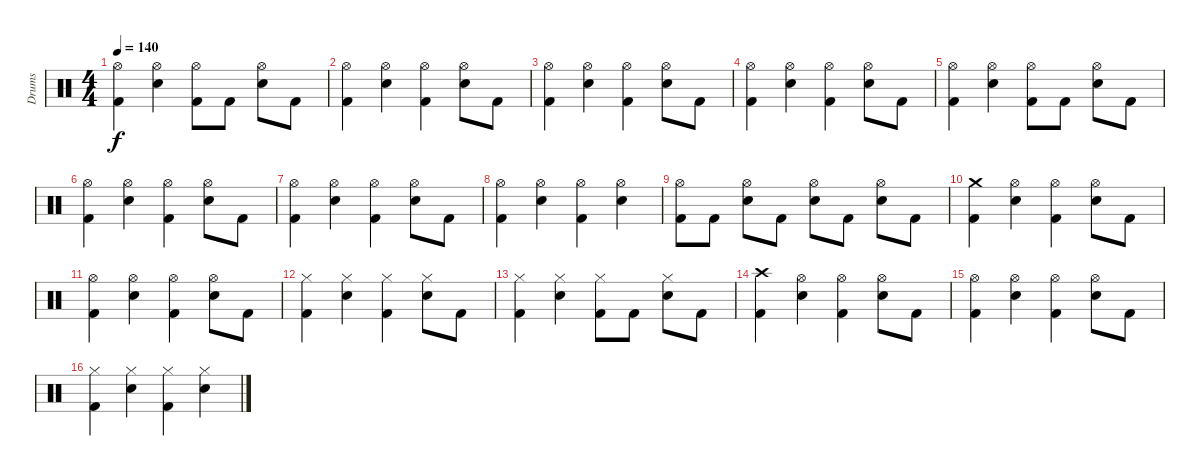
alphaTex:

\track ("Drums" "Drums") {instrument percussion}
\staff {score}
\articulation defaults
\ts (4 4)
\tempo 140
\clef neutral
\ks c
("Hi-Hat (open)" "Kick (hit) 2").4{dy f} ("Hi-Hat (open)" "Electric Snare (hit)").4 ("Hi-Hat (open)" "Kick (hit) 2").8 "Kick (hit) 2".8 ("Hi-Hat (open)" "Electric Snare (hit)").8 "Kick (hit) 2".8 |
("Hi-Hat (open)" "Kick (hit) 2").4 ("Hi-Hat (open)" "Electric Snare (hit)").4 ("Hi-Hat (open)" "Kick (hit) 2").4 ("Hi-Hat (open)" "Electric Snare (hit)").8 "Kick (hit) 2".8 |
("Hi-Hat (open)" "Kick (hit) 2").4 ("Hi-Hat (open)" "Electric Snare (hit)").4 ("Hi-Hat (open)" "Kick (hit) 2").4 ("Hi-Hat (open)" "Electric Snare (hit)").8 "Kick (hit) 2".8 |
("Hi-Hat (open)" "Kick (hit) 2").4 ("Hi-Hat (open)" "Electric Snare (hit)").4 ("Hi-Hat (open)" "Kick (hit) 2").4 ("Hi-Hat (open)" "Electric Snare (hit)").8 "Kick (hit) 2".8 |
("Hi-Hat (open)" "Kick (hit) 2").4 ("Hi-Hat (open)" "Electric Snare (hit)").4 ("Hi-Hat (open)" "Kick (hit) 2").8 "Kick (hit) 2".8 ("Hi-Hat (open)" "Electric Snare (hit)").8 "Kick (hit) 2".8 |
("Hi-Hat (open)" "Kick (hit) 2").4 ("Hi-Hat (open)" "Electric Snare (hit)").4 ("Hi-Hat (open)" "Kick (hit) 2").4 ("Hi-Hat (open)" "Electric Snare (hit)").8 "Kick (hit) 2".8 |
("Hi-Hat (open)" "Kick (hit) 2").4 ("Hi-Hat (open)" "Electric Snare (hit)").4 ("Hi-Hat (open)" "Kick (hit) 2").4 ("Hi-Hat (open)" "Electric Snare (hit)").8 "Kick (hit) 2".8 |
("Hi-Hat (open)" "Kick (hit) 2").4 ("Hi-Hat (open)" "Electric Snare (hit)").4 ("Hi-Hat (open)" "Kick (hit) 2").4 ("Hi-Hat (open)" "Electric Snare (hit)").4 |
("Hi-Hat (open)" "Kick (hit) 2").8 "Kick (hit) 2".8 ("Hi-Hat (open)" "Electric Snare (hit)").8 "Kick (hit) 2".8 ("Hi-Hat (open)" "Electric Snare (hit)").8 "Kick (hit) 2".8 ("Hi-Hat (open)" "Electric Snare (hit)").8 "Kick (hit) 2".8 |
("Crash medium (hit)" "Kick (hit) 2").4 ("Hi-Hat (open)" "Electric Snare (hit)").4 ("Hi-Hat (open)" "Kick (hit) 2").4 ("Hi-Hat (open)" "Electric Snare (hit)").8 "Kick (hit) 2".8 |
("Hi-Hat (open)" "Kick (hit) 2").4 ("Hi-Hat (open)" "Electric Snare (hit)").4 ("Hi-Hat (open)" "Kick (hit) 2").4 ("Hi-Hat (open)" "Electric Snare (hit)").8 "Kick (hit) 2".8 |
("Hi-Hat (closed)" "Kick (hit) 2").4 ("Hi-Hat (closed)" "Electric Snare (hit)").4 ("Hi-Hat (closed)" "Kick (hit) 2").4 ("Hi-Hat (closed)" "Electric Snare (hit)").8 "Kick (hit) 2".8 |
("Hi-Hat (closed)" "Kick (hit) 2").4 ("Hi-Hat (closed)" "Electric Snare (hit)").4 ("Hi-Hat (closed)" "Kick (hit) 2").8 "Kick (hit) 2".8 ("Hi-Hat (closed)" "Electric Snare (hit)").8 "Kick (hit) 2".8 |
("Crash high (hit)" "Kick (hit) 2").4 ("Hi-Hat (open)" "Electric Snare (hit)").4 ("Hi-Hat (open)" "Kick (hit) 2").4 ("Hi-Hat (open)" "Electric Snare (hit)").8 "Kick (hit) 2".8 |
("Hi-Hat (open)" "Kick (hit) 2").4 ("Hi-Hat (open)" "Electric Snare (hit)").4 ("Hi-Hat (open)" "Kick (hit) 2").4 ("Hi-Hat (open)" "Electric Snare (hit)").8 "Kick (hit) 2".8 |
("Hi-Hat (closed)" "Kick (hit) 2").4 ("Hi-Hat (closed)" "Electric Snare (hit)").4 ("Hi-Hat (closed)" "Kick (hit) 2").4 ("Hi-Hat (closed)" "Electric Snare (hit)").4
